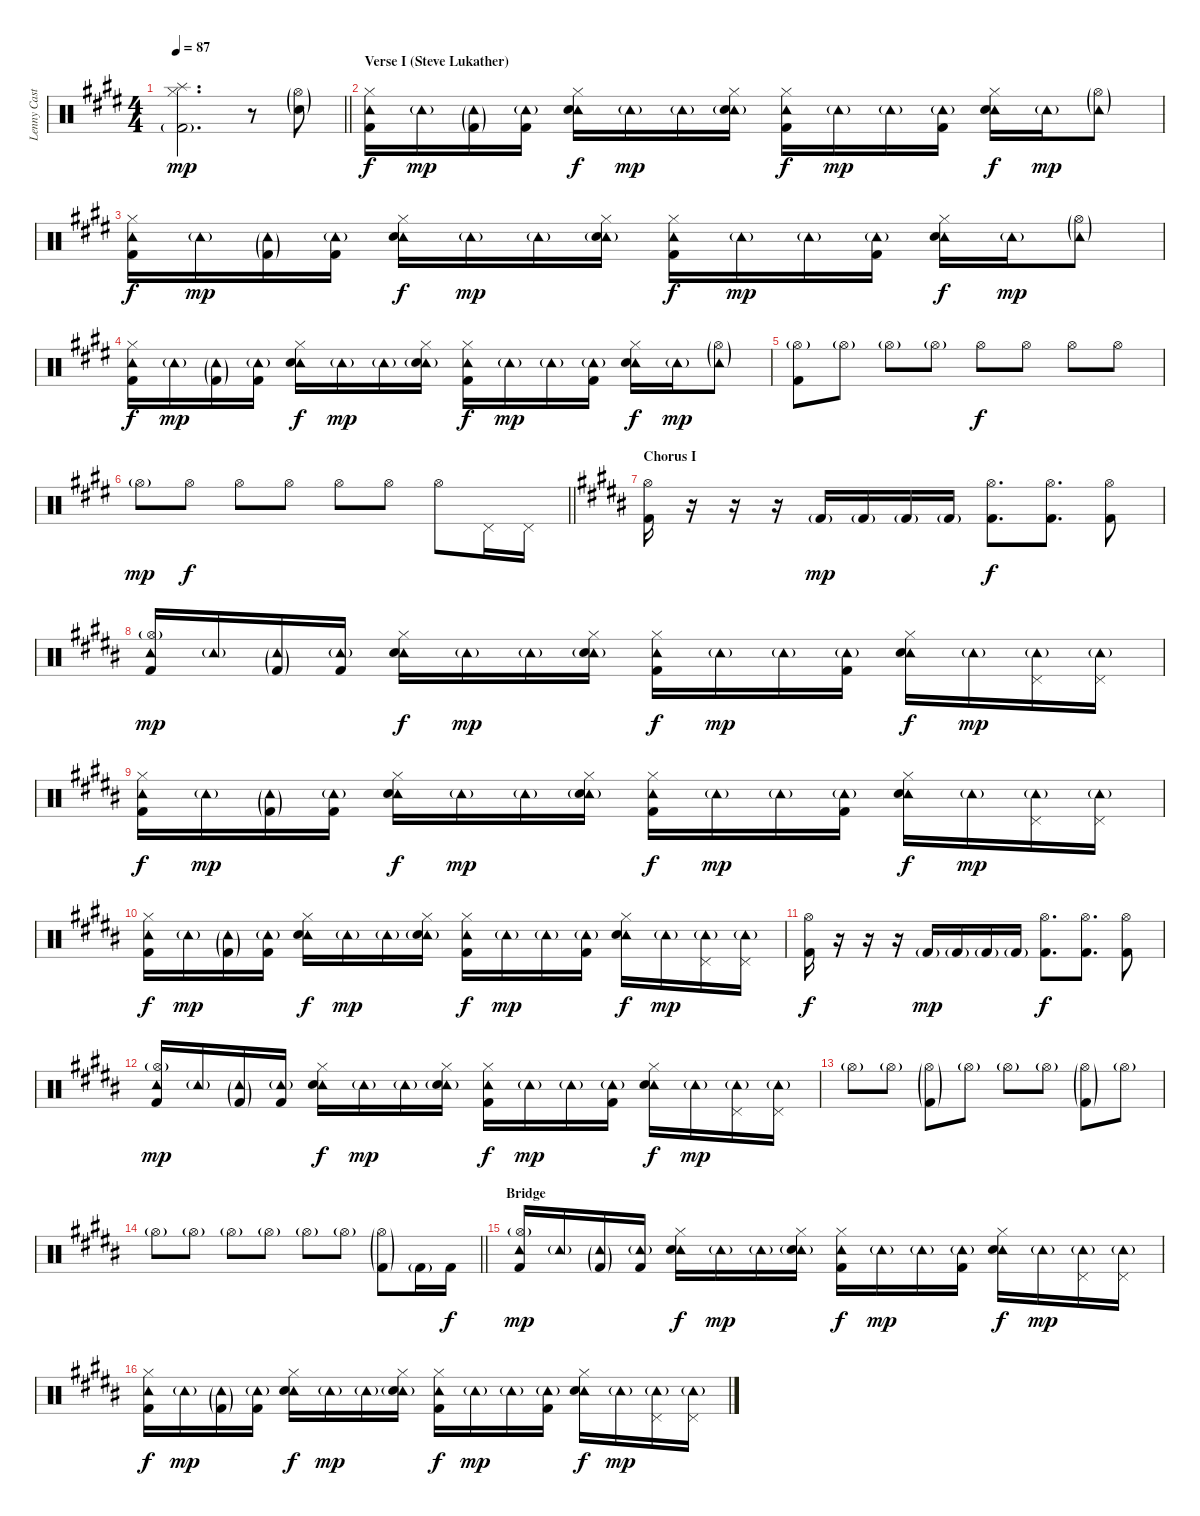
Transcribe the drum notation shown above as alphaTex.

\track ("Lenny Castro (Drums)" "Lenny Cast") {instrument percussion}
\staff {score}
\articulation defaults
\ts (4 4)
\tempo 87
\clef neutral
\barLineRight lightlight
\ks e
("Splash (hit)" "Hi-Hat (closed)" "Kick (hit) 2"{g}).2{d dy mp} r.8 ("Hi-Hat (open)"{g} "Electric Snare (hit)"{g}).8 |
\section ("" "Verse I (Steve Lukather)")
("Hi-Hat (closed)" "Tambourine (hit)" "Kick (hit) 2").16{dy f} "Tambourine (hit)"{g}.16{dy mp} ("Tambourine (hit)"{g} "Kick (hit) 2"{g}).16 ("Tambourine (hit)"{g} "Kick (hit) 2").16 ("Hi-Hat (closed)" "Tambourine (hit)" "Electric Snare (hit)").16{dy f} "Tambourine (hit)"{g}.16{dy mp} "Tambourine (hit)"{g}.16 ("Hi-Hat (closed)" "Tambourine (hit)"{g} "Electric Snare (hit)"{g}).16 ("Hi-Hat (closed)" "Tambourine (hit)" "Kick (hit) 2").16{dy f} "Tambourine (hit)"{g}.16{dy mp} "Tambourine (hit)"{g}.16 ("Tambourine (hit)"{g} "Kick (hit) 2").16 ("Hi-Hat (closed)" "Tambourine (hit)" "Electric Snare (hit)").16{dy f} "Tambourine (hit)"{g}.16{dy mp} ("Hi-Hat (open)"{g} "Tambourine (hit)"{g}).8 |
("Hi-Hat (closed)" "Tambourine (hit)" "Kick (hit) 2").16{dy f} "Tambourine (hit)"{g}.16{dy mp} ("Tambourine (hit)"{g} "Kick (hit) 2"{g}).16 ("Tambourine (hit)"{g} "Kick (hit) 2").16 ("Hi-Hat (closed)" "Tambourine (hit)" "Electric Snare (hit)").16{dy f} "Tambourine (hit)"{g}.16{dy mp} "Tambourine (hit)"{g}.16 ("Hi-Hat (closed)" "Tambourine (hit)"{g} "Electric Snare (hit)"{g}).16 ("Hi-Hat (closed)" "Tambourine (hit)" "Kick (hit) 2").16{dy f} "Tambourine (hit)"{g}.16{dy mp} "Tambourine (hit)"{g}.16 ("Tambourine (hit)"{g} "Kick (hit) 2").16 ("Hi-Hat (closed)" "Tambourine (hit)" "Electric Snare (hit)").16{dy f} "Tambourine (hit)"{g}.16{dy mp} ("Hi-Hat (open)"{g} "Tambourine (hit)"{g}).8 |
("Hi-Hat (closed)" "Tambourine (hit)" "Kick (hit) 2").16{dy f} "Tambourine (hit)"{g}.16{dy mp} ("Tambourine (hit)"{g} "Kick (hit) 2"{g}).16 ("Tambourine (hit)"{g} "Kick (hit) 2").16 ("Hi-Hat (closed)" "Tambourine (hit)" "Electric Snare (hit)").16{dy f} "Tambourine (hit)"{g}.16{dy mp} "Tambourine (hit)"{g}.16 ("Hi-Hat (closed)" "Tambourine (hit)"{g} "Electric Snare (hit)"{g}).16 ("Hi-Hat (closed)" "Tambourine (hit)" "Kick (hit) 2").16{dy f} "Tambourine (hit)"{g}.16{dy mp} "Tambourine (hit)"{g}.16 ("Tambourine (hit)"{g} "Kick (hit) 2").16 ("Hi-Hat (closed)" "Tambourine (hit)" "Electric Snare (hit)").16{dy f} "Tambourine (hit)"{g}.16{dy mp} ("Hi-Hat (open)"{g} "Tambourine (hit)"{g}).8 |
("Hi-Hat (open)"{g} "Kick (hit) 2").8 "Hi-Hat (open)"{g}.8 "Hi-Hat (open)"{g}.8 "Hi-Hat (open)"{g}.8 "Hi-Hat (open)".8{dy f} "Hi-Hat (open)".8 "Hi-Hat (open)".8 "Hi-Hat (open)".8 |
\barLineRight lightlight "Hi-Hat (open)"{g}.8{dy mp} "Hi-Hat (open)".8{dy f} "Hi-Hat (open)".8 "Hi-Hat (open)".8 "Hi-Hat (open)".8 "Hi-Hat (open)".8 "Hi-Hat (open)".8 "Pedal Hi-Hat (hit)".16 "Pedal Hi-Hat (hit)".16
|
\section ("" "Chorus I")
\ks b
("Hi-Hat (open)" "Kick (hit) 2").16 r.16 r.16 r.16 "Kick (hit) 2"{g}.16{dy mp} "Kick (hit) 2"{g}.16 "Kick (hit) 2"{g}.16 "Kick (hit) 2"{g}.16 ("Hi-Hat (open)" "Kick (hit) 2").8{d dy f} ("Hi-Hat (open)" "Kick (hit) 2").8{d} ("Hi-Hat (open)" "Kick (hit) 2").8 |
("Hi-Hat (open)"{g} "Tambourine (hit)" "Kick (hit) 2").16{dy mp} "Tambourine (hit)"{g}.16 ("Tambourine (hit)"{g} "Kick (hit) 2"{g}).16 ("Tambourine (hit)"{g} "Kick (hit) 2").16 ("Hi-Hat (closed)" "Tambourine (hit)" "Electric Snare (hit)").16{dy f} "Tambourine (hit)"{g}.16{dy mp} "Tambourine (hit)"{g}.16 ("Hi-Hat (closed)" "Tambourine (hit)"{g} "Electric Snare (hit)"{g}).16 ("Hi-Hat (closed)" "Tambourine (hit)" "Kick (hit) 2").16{dy f} "Tambourine (hit)"{g}.16{dy mp} "Tambourine (hit)"{g}.16 ("Tambourine (hit)"{g} "Kick (hit) 2").16 ("Hi-Hat (closed)" "Tambourine (hit)" "Electric Snare (hit)").16{dy f} "Tambourine (hit)"{g}.16{dy mp} ("Pedal Hi-Hat (hit)" "Tambourine (hit)"{g}).16 ("Pedal Hi-Hat (hit)" "Tambourine (hit)"{g}).16 |
("Hi-Hat (closed)" "Tambourine (hit)" "Kick (hit) 2").16{dy f} "Tambourine (hit)"{g}.16{dy mp} ("Tambourine (hit)"{g} "Kick (hit) 2"{g}).16 ("Tambourine (hit)"{g} "Kick (hit) 2").16 ("Hi-Hat (closed)" "Tambourine (hit)" "Electric Snare (hit)").16{dy f} "Tambourine (hit)"{g}.16{dy mp} "Tambourine (hit)"{g}.16 ("Hi-Hat (closed)" "Tambourine (hit)"{g} "Electric Snare (hit)"{g}).16 ("Hi-Hat (closed)" "Tambourine (hit)" "Kick (hit) 2").16{dy f} "Tambourine (hit)"{g}.16{dy mp} "Tambourine (hit)"{g}.16 ("Tambourine (hit)"{g} "Kick (hit) 2").16 ("Hi-Hat (closed)" "Tambourine (hit)" "Electric Snare (hit)").16{dy f} "Tambourine (hit)"{g}.16{dy mp} ("Pedal Hi-Hat (hit)" "Tambourine (hit)"{g}).16 ("Pedal Hi-Hat (hit)" "Tambourine (hit)"{g}).16 |
("Hi-Hat (closed)" "Tambourine (hit)" "Kick (hit) 2").16{dy f} "Tambourine (hit)"{g}.16{dy mp} ("Tambourine (hit)"{g} "Kick (hit) 2"{g}).16 ("Tambourine (hit)"{g} "Kick (hit) 2").16 ("Hi-Hat (closed)" "Tambourine (hit)" "Electric Snare (hit)").16{dy f} "Tambourine (hit)"{g}.16{dy mp} "Tambourine (hit)"{g}.16 ("Hi-Hat (closed)" "Tambourine (hit)"{g} "Electric Snare (hit)"{g}).16 ("Hi-Hat (closed)" "Tambourine (hit)" "Kick (hit) 2").16{dy f} "Tambourine (hit)"{g}.16{dy mp} "Tambourine (hit)"{g}.16 ("Tambourine (hit)"{g} "Kick (hit) 2").16 ("Hi-Hat (closed)" "Tambourine (hit)" "Electric Snare (hit)").16{dy f} "Tambourine (hit)"{g}.16{dy mp} ("Pedal Hi-Hat (hit)" "Tambourine (hit)"{g}).16 ("Pedal Hi-Hat (hit)" "Tambourine (hit)"{g}).16 |
("Hi-Hat (open)" "Kick (hit) 2").16{dy f} r.16 r.16 r.16 "Kick (hit) 2"{g}.16{dy mp} "Kick (hit) 2"{g}.16 "Kick (hit) 2"{g}.16 "Kick (hit) 2"{g}.16 ("Hi-Hat (open)" "Kick (hit) 2").8{d dy f} ("Hi-Hat (open)" "Kick (hit) 2").8{d} ("Hi-Hat (open)" "Kick (hit) 2").8 |
("Hi-Hat (open)"{g} "Tambourine (hit)" "Kick (hit) 2").16{dy mp} "Tambourine (hit)"{g}.16 ("Tambourine (hit)"{g} "Kick (hit) 2"{g}).16 ("Tambourine (hit)"{g} "Kick (hit) 2").16 ("Hi-Hat (closed)" "Tambourine (hit)" "Electric Snare (hit)").16{dy f} "Tambourine (hit)"{g}.16{dy mp} "Tambourine (hit)"{g}.16 ("Hi-Hat (closed)" "Tambourine (hit)"{g} "Electric Snare (hit)"{g}).16 ("Hi-Hat (closed)" "Tambourine (hit)" "Kick (hit) 2").16{dy f} "Tambourine (hit)"{g}.16{dy mp} "Tambourine (hit)"{g}.16 ("Tambourine (hit)"{g} "Kick (hit) 2").16 ("Hi-Hat (closed)" "Tambourine (hit)" "Electric Snare (hit)").16{dy f} "Tambourine (hit)"{g}.16{dy mp} ("Pedal Hi-Hat (hit)" "Tambourine (hit)"{g}).16 ("Pedal Hi-Hat (hit)" "Tambourine (hit)"{g}).16 |
"Hi-Hat (open)"{g}.8 "Hi-Hat (open)"{g}.8 ("Hi-Hat (open)"{g} "Kick (hit) 2"{g}).8 "Hi-Hat (open)"{g}.8 "Hi-Hat (open)"{g}.8 "Hi-Hat (open)"{g}.8 ("Hi-Hat (open)"{g} "Kick (hit) 2"{g}).8 "Hi-Hat (open)"{g}.8 |
\barLineRight lightlight "Hi-Hat (open)"{g}.8 "Hi-Hat (open)"{g}.8 "Hi-Hat (open)"{g}.8 "Hi-Hat (open)"{g}.8 "Hi-Hat (open)"{g}.8 "Hi-Hat (open)"{g}.8
("Hi-Hat (open)"{g} "Kick (hit) 2"{g}).8 "Kick (hit) 2"{g}.16 "Kick (hit) 2".16{dy f} |
\section ("" "Bridge")
("Hi-Hat (open)"{g} "Tambourine (hit)" "Kick (hit) 2").16{dy mp} "Tambourine (hit)"{g}.16 ("Tambourine (hit)"{g} "Kick (hit) 2"{g}).16 ("Tambourine (hit)"{g} "Kick (hit) 2").16 ("Hi-Hat (closed)" "Tambourine (hit)" "Electric Snare (hit)").16{dy f} "Tambourine (hit)"{g}.16{dy mp} "Tambourine (hit)"{g}.16 ("Hi-Hat (closed)" "Tambourine (hit)"{g} "Electric Snare (hit)"{g}).16 ("Hi-Hat (closed)" "Tambourine (hit)" "Kick (hit) 2").16{dy f} "Tambourine (hit)"{g}.16{dy mp} "Tambourine (hit)"{g}.16 ("Tambourine (hit)"{g} "Kick (hit) 2").16 ("Hi-Hat (closed)" "Tambourine (hit)" "Electric Snare (hit)").16{dy f} "Tambourine (hit)"{g}.16{dy mp} ("Pedal Hi-Hat (hit)" "Tambourine (hit)"{g}).16 ("Pedal Hi-Hat (hit)" "Tambourine (hit)"{g}).16 |
("Hi-Hat (closed)" "Tambourine (hit)" "Kick (hit) 2").16{dy f} "Tambourine (hit)"{g}.16{dy mp} ("Tambourine (hit)"{g} "Kick (hit) 2"{g}).16 ("Tambourine (hit)"{g} "Kick (hit) 2").16 ("Hi-Hat (closed)" "Tambourine (hit)" "Electric Snare (hit)").16{dy f} "Tambourine (hit)"{g}.16{dy mp} "Tambourine (hit)"{g}.16 ("Hi-Hat (closed)" "Tambourine (hit)"{g} "Electric Snare (hit)"{g}).16 ("Hi-Hat (closed)" "Tambourine (hit)" "Kick (hit) 2").16{dy f} "Tambourine (hit)"{g}.16{dy mp} "Tambourine (hit)"{g}.16 ("Tambourine (hit)"{g} "Kick (hit) 2").16 ("Hi-Hat (closed)" "Tambourine (hit)" "Electric Snare (hit)").16{dy f} "Tambourine (hit)"{g}.16{dy mp} ("Pedal Hi-Hat (hit)" "Tambourine (hit)"{g}).16 ("Pedal Hi-Hat (hit)" "Tambourine (hit)"{g}).16
